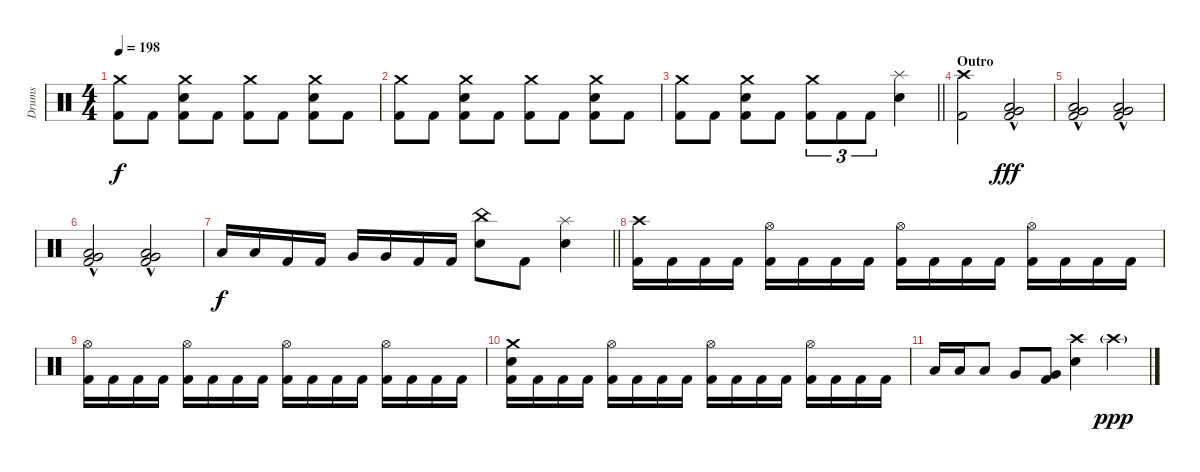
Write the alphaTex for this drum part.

\track ("Drums" "Drums") {instrument percussion}
\staff {score}
\articulation defaults
\ts (4 4)
\tempo 198
\clef neutral
\ks c
("Crash medium (hit)" "Kick (hit) 2").8{dy f} "Kick (hit) 2".8 ("Crash medium (hit)" "Electric Snare (hit)" "Kick (hit) 2").8 "Kick (hit) 2".8 ("Crash medium (hit)" "Kick (hit) 2").8 "Kick (hit) 2".8 ("Crash medium (hit)" "Electric Snare (hit)" "Kick (hit) 2").8 "Kick (hit) 2".8 |
("Crash medium (hit)" "Kick (hit) 2").8 "Kick (hit) 2".8 ("Crash medium (hit)" "Electric Snare (hit)" "Kick (hit) 2").8 "Kick (hit) 2".8 ("Crash medium (hit)" "Kick (hit) 2").8 "Kick (hit) 2".8 ("Crash medium (hit)" "Electric Snare (hit)" "Kick (hit) 2").8 "Kick (hit) 2".8 |
\barLineRight lightlight
("Crash medium (hit)" "Kick (hit) 2").8 "Kick (hit) 2".8 ("Crash medium (hit)" "Electric Snare (hit)" "Kick (hit) 2").8 "Kick (hit) 2".8 ("Crash medium (hit)" "Kick (hit) 2").8{tu (3 2)} "Kick (hit) 2".8{tu (3 2)} "Kick (hit) 2".8{tu (3 2)} ("Splash (hit)" "Electric Snare (hit)").4 |
\section ("" "Outro")
("Crash high (hit)" "Kick (hit) 2").2 ("Very Low Tom (hit)"{hac} "Low Floor Tom (hit)"{hac} "Kick (hit) 2"{hac}).2{dy fff} |
("Very Low Tom (hit)"{hac} "Low Floor Tom (hit)"{hac} "Kick (hit) 2"{hac}).2 ("Very Low Tom (hit)"{hac} "Low Floor Tom (hit)"{hac} "Kick (hit) 2"{hac}).2 |
("Very Low Tom (hit)"{hac} "Low Floor Tom (hit)"{hac} "Kick (hit) 2"{hac}).2 ("Very Low Tom (hit)"{hac} "Low Floor Tom (hit)"{hac} "Kick (hit) 2"{hac}).2 |
\barLineRight lightlight "Low Tom (hit)".16{dy f} "Low Tom (hit)".16 "Kick (hit) 2".16 "Kick (hit) 2".16 "Very Low Tom (hit)".16 "Very Low Tom (hit)".16 "Kick (hit) 2".16 "Kick (hit) 2".16
("China (hit)" "Electric Snare (hit)").8 "Kick (hit) 2".8 ("Splash (hit)" "Electric Snare (hit)").4 |
("Crash high (hit)" "Kick (hit) 2").16 "Kick (hit) 2".16 "Kick (hit) 2".16 "Kick (hit) 2".16 ("Hi-Hat (open)" "Kick (hit) 2").16 "Kick (hit) 2".16 "Kick (hit) 2".16 "Kick (hit) 2".16 ("Hi-Hat (open)" "Kick (hit) 2").16 "Kick (hit) 2".16 "Kick (hit) 2".16 "Kick (hit) 2".16 ("Hi-Hat (open)" "Kick (hit) 2").16 "Kick (hit) 2".16 "Kick (hit) 2".16 "Kick (hit) 2".16 |
("Hi-Hat (open)" "Kick (hit) 2").16 "Kick (hit) 2".16 "Kick (hit) 2".16 "Kick (hit) 2".16 ("Hi-Hat (open)" "Kick (hit) 2").16 "Kick (hit) 2".16 "Kick (hit) 2".16 "Kick (hit) 2".16 ("Hi-Hat (open)" "Kick (hit) 2").16 "Kick (hit) 2".16 "Kick (hit) 2".16 "Kick (hit) 2".16 ("Hi-Hat (open)" "Kick (hit) 2").16 "Kick (hit) 2".16 "Kick (hit) 2".16 "Kick (hit) 2".16 |
("Crash medium (hit)" "Electric Snare (hit)" "Kick (hit) 2").16 "Kick (hit) 2".16 "Kick (hit) 2".16 "Kick (hit) 2".16 ("Hi-Hat (open)" "Kick (hit) 2").16 "Kick (hit) 2".16 "Kick (hit) 2".16 "Kick (hit) 2".16 ("Hi-Hat (open)" "Kick (hit) 2").16 "Kick (hit) 2".16 "Kick (hit) 2".16 "Kick (hit) 2".16 ("Hi-Hat (open)" "Kick (hit) 2").16 "Kick (hit) 2".16 "Kick (hit) 2".16 "Kick (hit) 2".16 |
"Low Tom (hit)".16 "Low Tom (hit)".16 "Low Tom (hit)".8 "Very Low Tom (hit)".8 ("Very Low Tom (hit)" "Kick (hit) 2").8 ("Crash high (hit)" "Electric Snare (hit)").4 "Crash high (hit)"{g}.4{dy ppp}
